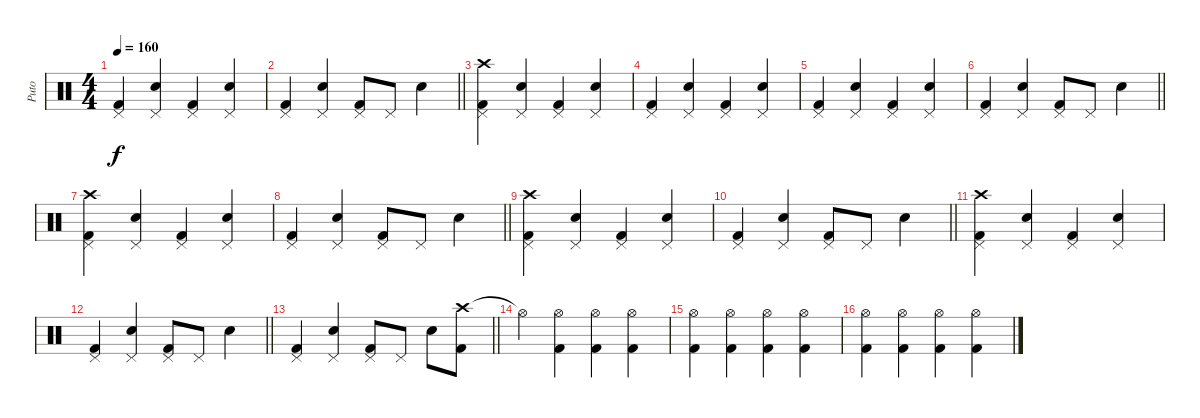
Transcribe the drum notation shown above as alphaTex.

\track ("Puto" "Puto") {instrument percussion}
\staff {score}
\articulation defaults
\ts (4 4)
\tempo 160
\clef neutral
\ks c
("Kick (hit) 2" "Pedal Hi-Hat (hit)").4{dy f} ("Snare (hit) 2" "Pedal Hi-Hat (hit)").4 ("Kick (hit) 2" "Pedal Hi-Hat (hit)").4 ("Snare (hit) 2" "Pedal Hi-Hat (hit)").4 |
\barLineRight lightlight
("Kick (hit) 2" "Pedal Hi-Hat (hit)").4 ("Snare (hit) 2" "Pedal Hi-Hat (hit)").4 ("Kick (hit) 2" "Pedal Hi-Hat (hit)").8 "Pedal Hi-Hat (hit)".8 "Snare (hit) 2".4 |
("Kick (hit) 2" "Crash high (hit)" "Pedal Hi-Hat (hit)").4 ("Snare (hit) 2" "Pedal Hi-Hat (hit)").4 ("Kick (hit) 2" "Pedal Hi-Hat (hit)").4 ("Snare (hit) 2" "Pedal Hi-Hat (hit)").4 |
("Kick (hit) 2" "Pedal Hi-Hat (hit)").4 ("Snare (hit) 2" "Pedal Hi-Hat (hit)").4 ("Kick (hit) 2" "Pedal Hi-Hat (hit)").4 ("Snare (hit) 2" "Pedal Hi-Hat (hit)").4 |
("Kick (hit) 2" "Pedal Hi-Hat (hit)").4 ("Snare (hit) 2" "Pedal Hi-Hat (hit)").4 ("Kick (hit) 2" "Pedal Hi-Hat (hit)").4 ("Snare (hit) 2" "Pedal Hi-Hat (hit)").4 |
\barLineRight lightlight
("Kick (hit) 2" "Pedal Hi-Hat (hit)").4 ("Snare (hit) 2" "Pedal Hi-Hat (hit)").4 ("Kick (hit) 2" "Pedal Hi-Hat (hit)").8 "Pedal Hi-Hat (hit)".8 "Snare (hit) 2".4 |
("Kick (hit) 2" "Crash high (hit)" "Pedal Hi-Hat (hit)").4 ("Snare (hit) 2" "Pedal Hi-Hat (hit)").4 ("Kick (hit) 2" "Pedal Hi-Hat (hit)").4 ("Snare (hit) 2" "Pedal Hi-Hat (hit)").4 |
\barLineRight lightlight
("Kick (hit) 2" "Pedal Hi-Hat (hit)").4 ("Snare (hit) 2" "Pedal Hi-Hat (hit)").4 ("Kick (hit) 2" "Pedal Hi-Hat (hit)").8 "Pedal Hi-Hat (hit)".8 "Snare (hit) 2".4 |
("Kick (hit) 2" "Crash high (hit)" "Pedal Hi-Hat (hit)").4 ("Snare (hit) 2" "Pedal Hi-Hat (hit)").4 ("Kick (hit) 2" "Pedal Hi-Hat (hit)").4 ("Snare (hit) 2" "Pedal Hi-Hat (hit)").4 |
\barLineRight lightlight
("Kick (hit) 2" "Pedal Hi-Hat (hit)").4 ("Snare (hit) 2" "Pedal Hi-Hat (hit)").4 ("Kick (hit) 2" "Pedal Hi-Hat (hit)").8 "Pedal Hi-Hat (hit)".8 "Snare (hit) 2".4 |
("Kick (hit) 2" "Crash high (hit)" "Pedal Hi-Hat (hit)").4 ("Snare (hit) 2" "Pedal Hi-Hat (hit)").4 ("Kick (hit) 2" "Pedal Hi-Hat (hit)").4 ("Snare (hit) 2" "Pedal Hi-Hat (hit)").4 |
\barLineRight lightlight
("Kick (hit) 2" "Pedal Hi-Hat (hit)").4 ("Snare (hit) 2" "Pedal Hi-Hat (hit)").4 ("Kick (hit) 2" "Pedal Hi-Hat (hit)").8 "Pedal Hi-Hat (hit)".8 "Snare (hit) 2".4 |
\barLineRight lightlight
("Kick (hit) 2" "Pedal Hi-Hat (hit)").4 ("Snare (hit) 2" "Pedal Hi-Hat (hit)").4 ("Kick (hit) 2" "Pedal Hi-Hat (hit)").8 "Pedal Hi-Hat (hit)".8 "Snare (hit) 2".8 ("Crash high (hit)" "Kick (hit) 2").8 |
"Hi-Hat (open)"{t}.4 ("Hi-Hat (open)" "Kick (hit) 2").4 ("Hi-Hat (open)" "Kick (hit) 2").4 ("Hi-Hat (open)" "Kick (hit) 2").4 |
("Hi-Hat (open)" "Kick (hit) 2").4 ("Hi-Hat (open)" "Kick (hit) 2").4 ("Hi-Hat (open)" "Kick (hit) 2").4 ("Hi-Hat (open)" "Kick (hit) 2").4 |
("Hi-Hat (open)" "Kick (hit) 2").4 ("Hi-Hat (open)" "Kick (hit) 2").4 ("Hi-Hat (open)" "Kick (hit) 2").4 ("Hi-Hat (open)" "Kick (hit) 2").4
